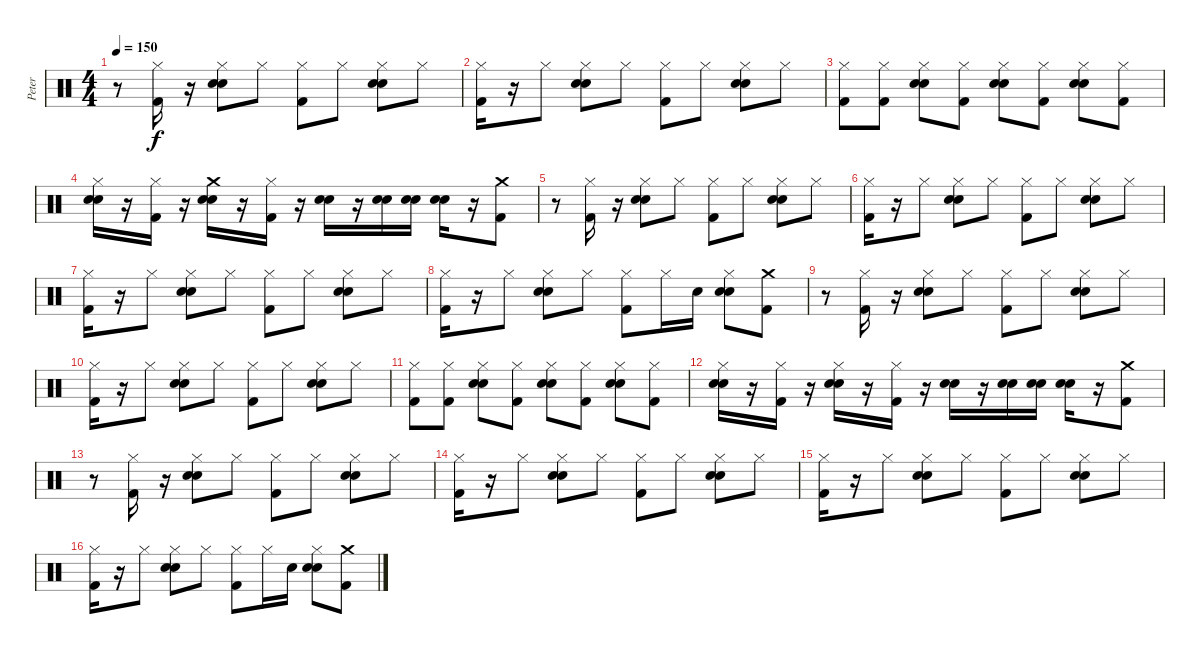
\track ("Peter" "Peter") {instrument percussion}
\staff {score}
\articulation defaults
\ts (4 4)
\tempo 150
\clef neutral
\ks c
r.8{dy f} ("Hi-Hat (closed)" "Kick (hit) 2").16 r.16 ("Hi-Hat (closed)" "Electric Snare (hit)" "Snare (hit) 2").8 "Hi-Hat (closed)".8 ("Hi-Hat (closed)" "Kick (hit) 2").8 "Hi-Hat (closed)".8 ("Hi-Hat (closed)" "Electric Snare (hit)" "Snare (hit) 2").8 "Hi-Hat (closed)".8 |
("Hi-Hat (closed)" "Kick (hit) 2").16 r.16 "Hi-Hat (closed)".8 ("Electric Snare (hit)" "Snare (hit) 2" "Hi-Hat (closed)").8 "Hi-Hat (closed)".8 ("Kick (hit) 2" "Hi-Hat (closed)").8 "Hi-Hat (closed)".8 ("Electric Snare (hit)" "Snare (hit) 2" "Hi-Hat (closed)").8 "Hi-Hat (closed)".8 |
("Hi-Hat (closed)" "Kick (hit) 2").8 ("Hi-Hat (closed)" "Kick (hit) 2").8 ("Hi-Hat (closed)" "Electric Snare (hit)" "Snare (hit) 2").8 ("Hi-Hat (closed)" "Kick (hit) 2").8 ("Hi-Hat (closed)" "Electric Snare (hit)" "Snare (hit) 2").8 ("Hi-Hat (closed)" "Kick (hit) 2").8 ("Hi-Hat (closed)" "Electric Snare (hit)" "Snare (hit) 2").8 ("Hi-Hat (closed)" "Kick (hit) 2").8 |
("Hi-Hat (closed)" "Snare (hit) 2" "Electric Snare (hit)").16 r.16 ("Hi-Hat (closed)" "Kick (hit) 2").16 r.16 ("Crash medium (hit)" "Snare (hit) 2" "Electric Snare (hit)").16 r.16 ("Hi-Hat (closed)" "Kick (hit) 2").16 r.16 ("Snare (hit) 2" "Electric Snare (hit)").16 r.16 ("Snare (hit) 2" "Electric Snare (hit)").16 ("Snare (hit) 2" "Electric Snare (hit)").16 ("Snare (hit) 2" "Electric Snare (hit)").16 r.16 ("Crash medium (hit)" "Kick (hit) 2").8 |
r.8 ("Hi-Hat (closed)" "Kick (hit) 2").16 r.16 ("Hi-Hat (closed)" "Electric Snare (hit)" "Snare (hit) 2").8 "Hi-Hat (closed)".8 ("Hi-Hat (closed)" "Kick (hit) 2").8 "Hi-Hat (closed)".8 ("Hi-Hat (closed)" "Electric Snare (hit)" "Snare (hit) 2").8 "Hi-Hat (closed)".8 |
("Hi-Hat (closed)" "Kick (hit) 2").16 r.16 "Hi-Hat (closed)".8 ("Electric Snare (hit)" "Snare (hit) 2" "Hi-Hat (closed)").8 "Hi-Hat (closed)".8 ("Kick (hit) 2" "Hi-Hat (closed)").8 "Hi-Hat (closed)".8 ("Electric Snare (hit)" "Snare (hit) 2" "Hi-Hat (closed)").8 "Hi-Hat (closed)".8 |
("Hi-Hat (closed)" "Kick (hit) 2").16 r.16 "Hi-Hat (closed)".8 ("Electric Snare (hit)" "Hi-Hat (closed)" "Snare (hit) 2").8 "Hi-Hat (closed)".8 ("Hi-Hat (closed)" "Kick (hit) 2").8 "Hi-Hat (closed)".8 ("Hi-Hat (closed)" "Electric Snare (hit)" "Snare (hit) 2").8 "Hi-Hat (closed)".8 |
("Kick (hit) 2" "Hi-Hat (closed)").16 r.16 "Hi-Hat (closed)".8 ("Electric Snare (hit)" "Hi-Hat (closed)" "Snare (hit) 2").8 "Hi-Hat (closed)".8 ("Hi-Hat (closed)" "Kick (hit) 2").8 "Hi-Hat (closed)".16 "Snare (hit) 2".16 ("Hi-Hat (closed)" "Electric Snare (hit)" "Snare (hit) 2").8 ("Kick (hit) 2" "Crash medium (hit)").8 |
r.8 ("Hi-Hat (closed)" "Kick (hit) 2").16 r.16 ("Hi-Hat (closed)" "Electric Snare (hit)" "Snare (hit) 2").8 "Hi-Hat (closed)".8 ("Hi-Hat (closed)" "Kick (hit) 2").8 "Hi-Hat (closed)".8 ("Hi-Hat (closed)" "Electric Snare (hit)" "Snare (hit) 2").8 "Hi-Hat (closed)".8 |
("Hi-Hat (closed)" "Kick (hit) 2").16 r.16 "Hi-Hat (closed)".8 ("Electric Snare (hit)" "Snare (hit) 2" "Hi-Hat (closed)").8 "Hi-Hat (closed)".8 ("Kick (hit) 2" "Hi-Hat (closed)").8 "Hi-Hat (closed)".8 ("Electric Snare (hit)" "Snare (hit) 2" "Hi-Hat (closed)").8 "Hi-Hat (closed)".8 |
("Hi-Hat (closed)" "Kick (hit) 2").8 ("Hi-Hat (closed)" "Kick (hit) 2").8 ("Hi-Hat (closed)" "Electric Snare (hit)" "Snare (hit) 2").8 ("Hi-Hat (closed)" "Kick (hit) 2").8 ("Hi-Hat (closed)" "Electric Snare (hit)" "Snare (hit) 2").8 ("Hi-Hat (closed)" "Kick (hit) 2").8 ("Hi-Hat (closed)" "Electric Snare (hit)" "Snare (hit) 2").8 ("Hi-Hat (closed)" "Kick (hit) 2").8 |
("Hi-Hat (closed)" "Snare (hit) 2" "Electric Snare (hit)").16 r.16 ("Hi-Hat (closed)" "Kick (hit) 2").16 r.16 ("Hi-Hat (closed)" "Snare (hit) 2" "Electric Snare (hit)").16 r.16 ("Hi-Hat (closed)" "Kick (hit) 2").16 r.16 ("Snare (hit) 2" "Electric Snare (hit)").16 r.16 ("Snare (hit) 2" "Electric Snare (hit)").16 ("Snare (hit) 2" "Electric Snare (hit)").16 ("Snare (hit) 2" "Electric Snare (hit)").16 r.16 ("Crash medium (hit)" "Kick (hit) 2").8 |
r.8 ("Hi-Hat (closed)" "Kick (hit) 2").16 r.16 ("Hi-Hat (closed)" "Electric Snare (hit)" "Snare (hit) 2").8 "Hi-Hat (closed)".8 ("Hi-Hat (closed)" "Kick (hit) 2").8 "Hi-Hat (closed)".8 ("Hi-Hat (closed)" "Electric Snare (hit)" "Snare (hit) 2").8 "Hi-Hat (closed)".8 |
("Hi-Hat (closed)" "Kick (hit) 2").16 r.16 "Hi-Hat (closed)".8 ("Electric Snare (hit)" "Snare (hit) 2" "Hi-Hat (closed)").8 "Hi-Hat (closed)".8 ("Kick (hit) 2" "Hi-Hat (closed)").8 "Hi-Hat (closed)".8 ("Electric Snare (hit)" "Snare (hit) 2" "Hi-Hat (closed)").8 "Hi-Hat (closed)".8 |
("Hi-Hat (closed)" "Kick (hit) 2").16 r.16 "Hi-Hat (closed)".8 ("Electric Snare (hit)" "Hi-Hat (closed)" "Snare (hit) 2").8 "Hi-Hat (closed)".8 ("Hi-Hat (closed)" "Kick (hit) 2").8 "Hi-Hat (closed)".8 ("Hi-Hat (closed)" "Electric Snare (hit)" "Snare (hit) 2").8 "Hi-Hat (closed)".8 |
("Kick (hit) 2" "Hi-Hat (closed)").16 r.16 "Hi-Hat (closed)".8 ("Electric Snare (hit)" "Hi-Hat (closed)" "Snare (hit) 2").8 "Hi-Hat (closed)".8 ("Hi-Hat (closed)" "Kick (hit) 2").8 "Hi-Hat (closed)".16 "Snare (hit) 2".16 ("Hi-Hat (closed)" "Electric Snare (hit)" "Snare (hit) 2").8 ("Kick (hit) 2" "Crash medium (hit)").8
